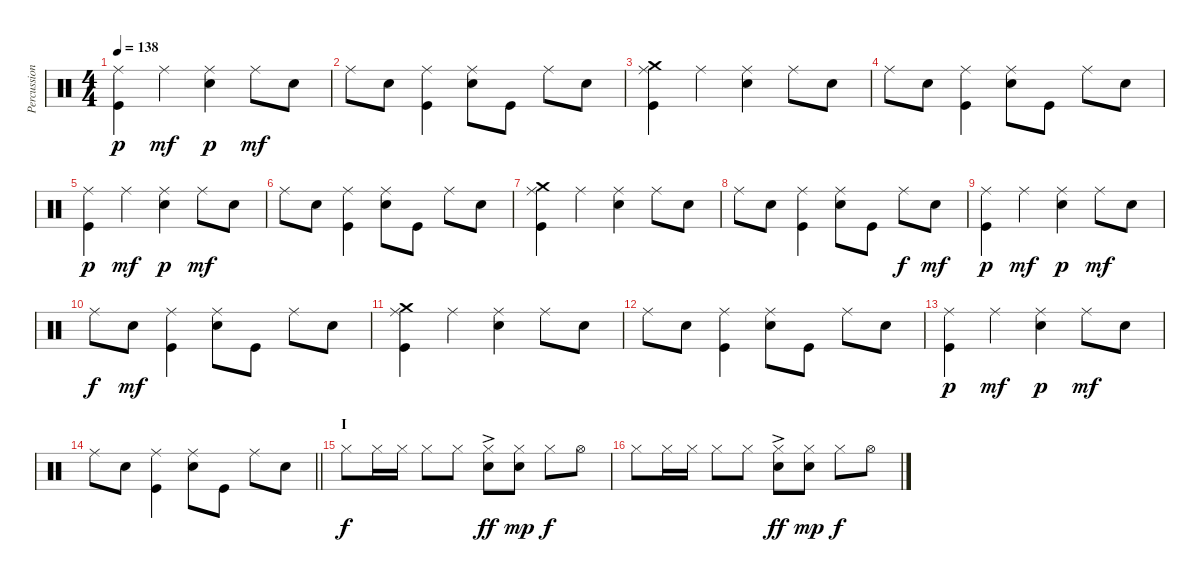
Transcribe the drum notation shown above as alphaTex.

\track ("Percussion" "Percussion") {instrument percussion}
\staff {score}
\articulation defaults
\ts (4 4)
\tempo 138
\clef neutral
\ks c
("Ride (middle)" "Kick (hit)").4{dy p} "Ride (middle)".4{dy mf} ("Ride (middle)" "Snare (hit) 2").4{dy p} "Ride (middle)".8{dy mf} "Snare (hit) 2".8 |
"Ride (middle)".8 "Snare (hit) 2".8 ("Ride (middle)" "Kick (hit)").4 ("Ride (middle)" "Snare (hit) 2").8 "Kick (hit)".8 "Ride (middle)".8 "Snare (hit) 2".8 |
("Ride (middle)" "Crash medium (hit)" "Kick (hit)").4 "Ride (middle)".4 ("Ride (middle)" "Snare (hit) 2").4 "Ride (middle)".8 "Snare (hit) 2".8 |
"Ride (middle)".8 "Snare (hit) 2".8 ("Ride (middle)" "Kick (hit)").4 ("Ride (middle)" "Snare (hit) 2").8 "Kick (hit)".8 "Ride (middle)".8 "Snare (hit) 2".8 |
("Ride (middle)" "Kick (hit)").4{dy p} "Ride (middle)".4{dy mf} ("Ride (middle)" "Snare (hit) 2").4{dy p} "Ride (middle)".8{dy mf} "Snare (hit) 2".8 |
"Ride (middle)".8 "Snare (hit) 2".8 ("Ride (middle)" "Kick (hit)").4 ("Ride (middle)" "Snare (hit) 2").8 "Kick (hit)".8 "Ride (middle)".8 "Snare (hit) 2".8 |
("Ride (middle)" "Crash medium (hit)" "Kick (hit)").4 "Ride (middle)".4 ("Ride (middle)" "Snare (hit) 2").4 "Ride (middle)".8 "Snare (hit) 2".8 |
"Ride (middle)".8 "Snare (hit) 2".8 ("Ride (middle)" "Kick (hit)").4 ("Ride (middle)" "Snare (hit) 2").8 "Kick (hit)".8 "Ride (middle)".8{dy f} "Snare (hit) 2".8{dy mf} |
("Ride (middle)" "Kick (hit)").4{dy p} "Ride (middle)".4{dy mf} ("Ride (middle)" "Snare (hit) 2").4{dy p} "Ride (middle)".8{dy mf} "Snare (hit) 2".8 |
"Ride (middle)".8{dy f} "Snare (hit) 2".8{dy mf} ("Ride (middle)" "Kick (hit)").4 ("Ride (middle)" "Snare (hit) 2").8 "Kick (hit)".8 "Ride (middle)".8 "Snare (hit) 2".8 |
("Ride (middle)" "Crash medium (hit)" "Kick (hit)").4 "Ride (middle)".4 ("Ride (middle)" "Snare (hit) 2").4 "Ride (middle)".8 "Snare (hit) 2".8 |
"Ride (middle)".8 "Snare (hit) 2".8 ("Ride (middle)" "Kick (hit)").4 ("Ride (middle)" "Snare (hit) 2").8 "Kick (hit)".8 "Ride (middle)".8 "Snare (hit) 2".8 |
("Ride (middle)" "Kick (hit)").4{dy p} "Ride (middle)".4{dy mf} ("Ride (middle)" "Snare (hit) 2").4{dy p} "Ride (middle)".8{dy mf} "Snare (hit) 2".8 |
\barLineRight lightlight "Ride (middle)".8 "Snare (hit) 2".8
("Ride (middle)" "Kick (hit)").4 ("Ride (middle)" "Snare (hit) 2").8 "Kick (hit)".8 "Ride (middle)".8 "Snare (hit) 2".8 |
\section ("" "I")
"Hi-Hat (closed)".8{dy f} "Hi-Hat (closed)".16 "Hi-Hat (closed)".16 "Hi-Hat (closed)".8 "Hi-Hat (closed)".8 ("Hi-Hat (closed)" "Snare (hit) 2"{ac}).8{dy ff} ("Hi-Hat (closed)" "Snare (hit) 2").8{dy mp} "Hi-Hat (closed)".8{dy f} "Hi-Hat (open)".8 |
"Hi-Hat (closed)".8 "Hi-Hat (closed)".16 "Hi-Hat (closed)".16 "Hi-Hat (closed)".8 "Hi-Hat (closed)".8 ("Hi-Hat (closed)" "Snare (hit) 2"{ac}).8{dy ff} ("Hi-Hat (closed)" "Snare (hit) 2").8{dy mp} "Hi-Hat (closed)".8{dy f} "Hi-Hat (open)".8
